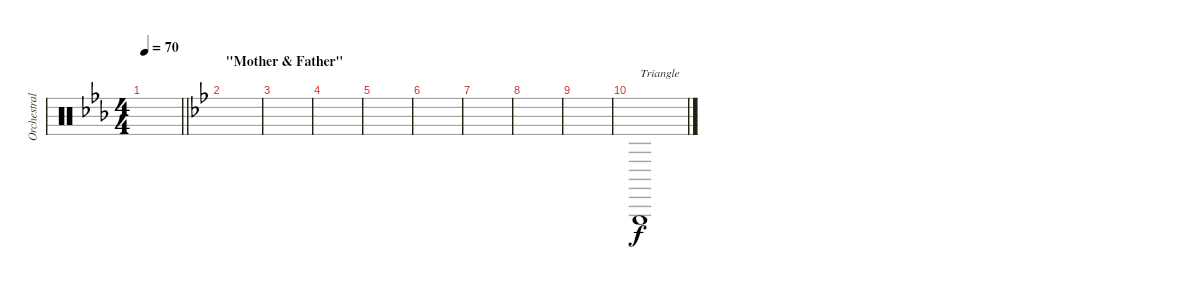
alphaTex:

\track ("Orchestral Percussion I" "Orchestral") {instrument percussion}
\staff {score}
\articulation defaults
\ts (4 4)
\tempo 70
\clef neutral
\barLineRight lightlight
\ks cminor
|
\section ("" "\"Mother & Father\"")
\ks gminor
|
|
|
|
|
|
|
|
"Triangle (hit)".1{txt "Triangle"}
